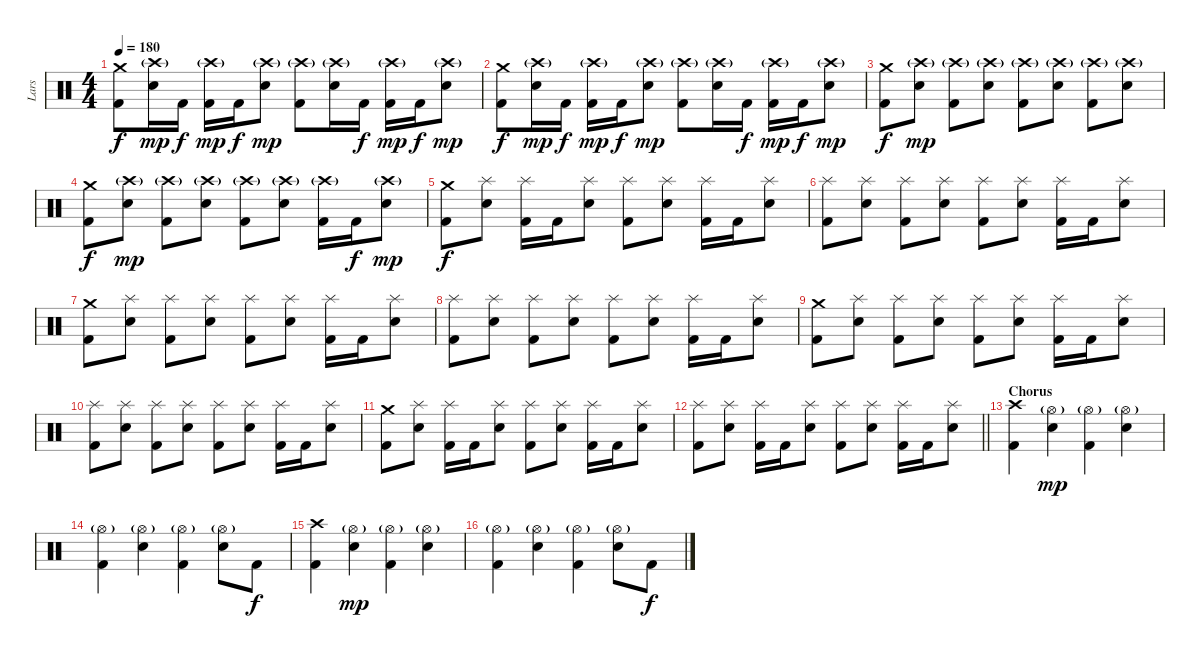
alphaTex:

\track ("Lars" "Lars") {instrument percussion}
\staff {score}
\articulation defaults
\ts (4 4)
\tempo 180
\clef neutral
\ks c
("Crash medium (hit)" "Kick (hit) 2").8{dy f} ("Crash high (hit)"{g} "Electric Snare (hit)").16{dy mp} "Kick (hit) 2".16{dy f} ("Crash high (hit)"{g} "Kick (hit) 2").16{dy mp} "Kick (hit) 2".16{dy f} ("Crash high (hit)"{g} "Electric Snare (hit)").8{dy mp} ("Crash high (hit)"{g} "Kick (hit) 2").8 ("Crash high (hit)"{g} "Electric Snare (hit)").16 "Kick (hit) 2".16{dy f} ("Crash high (hit)"{g} "Kick (hit) 2").16{dy mp} "Kick (hit) 2".16{dy f} ("Crash high (hit)"{g} "Electric Snare (hit)").8{dy mp} |
("Crash medium (hit)" "Kick (hit) 2").8{dy f} ("Crash high (hit)"{g} "Electric Snare (hit)").16{dy mp} "Kick (hit) 2".16{dy f} ("Crash high (hit)"{g} "Kick (hit) 2").16{dy mp} "Kick (hit) 2".16{dy f} ("Crash high (hit)"{g} "Electric Snare (hit)").8{dy mp} ("Crash high (hit)"{g} "Kick (hit) 2").8 ("Crash high (hit)"{g} "Electric Snare (hit)").16 "Kick (hit) 2".16{dy f} ("Crash high (hit)"{g} "Kick (hit) 2").16{dy mp} "Kick (hit) 2".16{dy f} ("Crash high (hit)"{g} "Electric Snare (hit)").8{dy mp} |
("Crash medium (hit)" "Kick (hit) 2").8{dy f} ("Crash high (hit)"{g} "Electric Snare (hit)").8{dy mp} ("Crash high (hit)"{g} "Kick (hit) 2").8 ("Crash high (hit)"{g} "Electric Snare (hit)").8 ("Crash high (hit)"{g} "Kick (hit) 2").8 ("Crash high (hit)"{g} "Electric Snare (hit)").8 ("Crash high (hit)"{g} "Kick (hit) 2").8 ("Crash high (hit)"{g} "Electric Snare (hit)").8 |
("Crash medium (hit)" "Kick (hit) 2").8{dy f} ("Crash high (hit)"{g} "Electric Snare (hit)").8{dy mp} ("Crash high (hit)"{g} "Kick (hit) 2").8 ("Crash high (hit)"{g} "Electric Snare (hit)").8 ("Crash high (hit)"{g} "Kick (hit) 2").8 ("Crash high (hit)"{g} "Electric Snare (hit)").8 ("Crash high (hit)"{g} "Kick (hit) 2").16 "Kick (hit) 2".16{dy f} ("Crash high (hit)"{g} "Electric Snare (hit)").8{dy mp} |
("Crash medium (hit)" "Kick (hit) 2").8{dy f} ("Splash (hit)" "Electric Snare (hit)").8 ("Splash (hit)" "Kick (hit) 2").16 "Kick (hit) 2".16 ("Splash (hit)" "Electric Snare (hit)").8 ("Splash (hit)" "Kick (hit) 2").8 ("Splash (hit)" "Electric Snare (hit)").8 ("Splash (hit)" "Kick (hit) 2").16 "Kick (hit) 2".16 ("Splash (hit)" "Electric Snare (hit)").8 |
("Splash (hit)" "Kick (hit) 2").8 ("Splash (hit)" "Electric Snare (hit)").8 ("Splash (hit)" "Kick (hit) 2").8 ("Splash (hit)" "Electric Snare (hit)").8 ("Splash (hit)" "Kick (hit) 2").8 ("Splash (hit)" "Electric Snare (hit)").8 ("Splash (hit)" "Kick (hit) 2").16 "Kick (hit) 2".16 ("Splash (hit)" "Electric Snare (hit)").8 |
("Crash medium (hit)" "Kick (hit) 2").8 ("Splash (hit)" "Electric Snare (hit)").8 ("Splash (hit)" "Kick (hit) 2").8 ("Splash (hit)" "Electric Snare (hit)").8 ("Splash (hit)" "Kick (hit) 2").8 ("Splash (hit)" "Electric Snare (hit)").8 ("Splash (hit)" "Kick (hit) 2").16 "Kick (hit) 2".16 ("Splash (hit)" "Electric Snare (hit)").8 |
("Splash (hit)" "Kick (hit) 2").8 ("Splash (hit)" "Electric Snare (hit)").8 ("Splash (hit)" "Kick (hit) 2").8 ("Splash (hit)" "Electric Snare (hit)").8 ("Splash (hit)" "Kick (hit) 2").8 ("Splash (hit)" "Electric Snare (hit)").8 ("Splash (hit)" "Kick (hit) 2").16 "Kick (hit) 2".16 ("Splash (hit)" "Electric Snare (hit)").8 |
("Crash medium (hit)" "Kick (hit) 2").8 ("Splash (hit)" "Electric Snare (hit)").8 ("Splash (hit)" "Kick (hit) 2").8 ("Splash (hit)" "Electric Snare (hit)").8 ("Splash (hit)" "Kick (hit) 2").8 ("Splash (hit)" "Electric Snare (hit)").8 ("Splash (hit)" "Kick (hit) 2").16 "Kick (hit) 2".16 ("Splash (hit)" "Electric Snare (hit)").8 |
("Splash (hit)" "Kick (hit) 2").8 ("Splash (hit)" "Electric Snare (hit)").8 ("Splash (hit)" "Kick (hit) 2").8 ("Splash (hit)" "Electric Snare (hit)").8 ("Splash (hit)" "Kick (hit) 2").8 ("Splash (hit)" "Electric Snare (hit)").8 ("Splash (hit)" "Kick (hit) 2").16 "Kick (hit) 2".16 ("Splash (hit)" "Electric Snare (hit)").8 |
("Crash medium (hit)" "Kick (hit) 2").8 ("Splash (hit)" "Electric Snare (hit)").8 ("Splash (hit)" "Kick (hit) 2").16 "Kick (hit) 2".16 ("Splash (hit)" "Electric Snare (hit)").8 ("Splash (hit)" "Kick (hit) 2").8 ("Splash (hit)" "Electric Snare (hit)").8 ("Splash (hit)" "Kick (hit) 2").16 "Kick (hit) 2".16 ("Splash (hit)" "Electric Snare (hit)").8 |
\barLineRight lightlight
("Splash (hit)" "Kick (hit) 2").8 ("Splash (hit)" "Electric Snare (hit)").8 ("Splash (hit)" "Kick (hit) 2").16 "Kick (hit) 2".16 ("Splash (hit)" "Electric Snare (hit)").8 ("Splash (hit)" "Kick (hit) 2").8 ("Splash (hit)" "Electric Snare (hit)").8 ("Splash (hit)" "Kick (hit) 2").16 "Kick (hit) 2".16 ("Splash (hit)" "Electric Snare (hit)").8 |
\section ("" "Chorus")
("Crash high (hit)" "Kick (hit) 2").4 ("Hi-Hat (open)"{g} "Electric Snare (hit)").4{dy mp} ("Hi-Hat (open)"{g} "Kick (hit) 2").4 ("Hi-Hat (open)"{g} "Electric Snare (hit)").4 |
("Hi-Hat (open)"{g} "Kick (hit) 2").4 ("Hi-Hat (open)"{g} "Electric Snare (hit)").4 ("Hi-Hat (open)"{g} "Kick (hit) 2").4 ("Hi-Hat (open)"{g} "Electric Snare (hit)").8 "Kick (hit) 2".8{dy f} |
("Crash high (hit)" "Kick (hit) 2").4 ("Hi-Hat (open)"{g} "Electric Snare (hit)").4{dy mp} ("Hi-Hat (open)"{g} "Kick (hit) 2").4 ("Hi-Hat (open)"{g} "Electric Snare (hit)").4 |
("Hi-Hat (open)"{g} "Kick (hit) 2").4 ("Hi-Hat (open)"{g} "Electric Snare (hit)").4 ("Hi-Hat (open)"{g} "Kick (hit) 2").4 ("Hi-Hat (open)"{g} "Electric Snare (hit)").8 "Kick (hit) 2".8{dy f}
